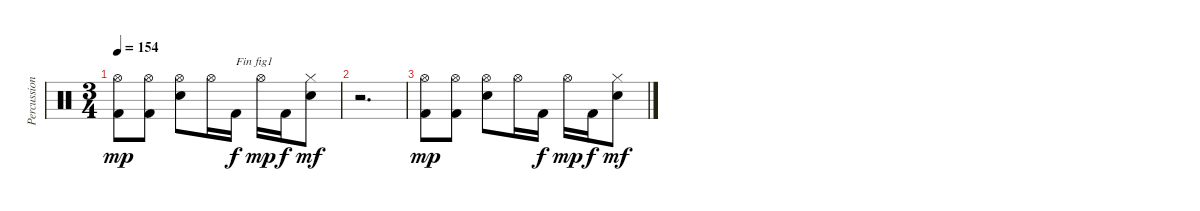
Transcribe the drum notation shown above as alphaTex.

\track ("Percussions" "Percussion") {instrument percussion}
\staff {score}
\articulation defaults
\ts (3 4)
\tempo 154
\clef neutral
\ks c
("Kick (hit) 2" "Hi-Hat (open)").8{dy mp} ("Kick (hit) 2" "Hi-Hat (open)").8 ("Electric Snare (hit)" "Hi-Hat (open)").8 "Hi-Hat (open)".16 "Kick (hit) 2".16{txt "Fin fig1" dy f} "Hi-Hat (open)".16{dy mp} "Kick (hit) 2".16{dy f} ("Electric Snare (hit)" "Hi-Hat (closed)").8{dy mf} |
r.2{d} |
("Kick (hit) 2" "Hi-Hat (open)").8{dy mp} ("Kick (hit) 2" "Hi-Hat (open)").8 ("Electric Snare (hit)" "Hi-Hat (open)").8 "Hi-Hat (open)".16 "Kick (hit) 2".16{dy f} "Hi-Hat (open)".16{dy mp} "Kick (hit) 2".16{dy f} ("Electric Snare (hit)" "Hi-Hat (closed)").8{dy mf}
